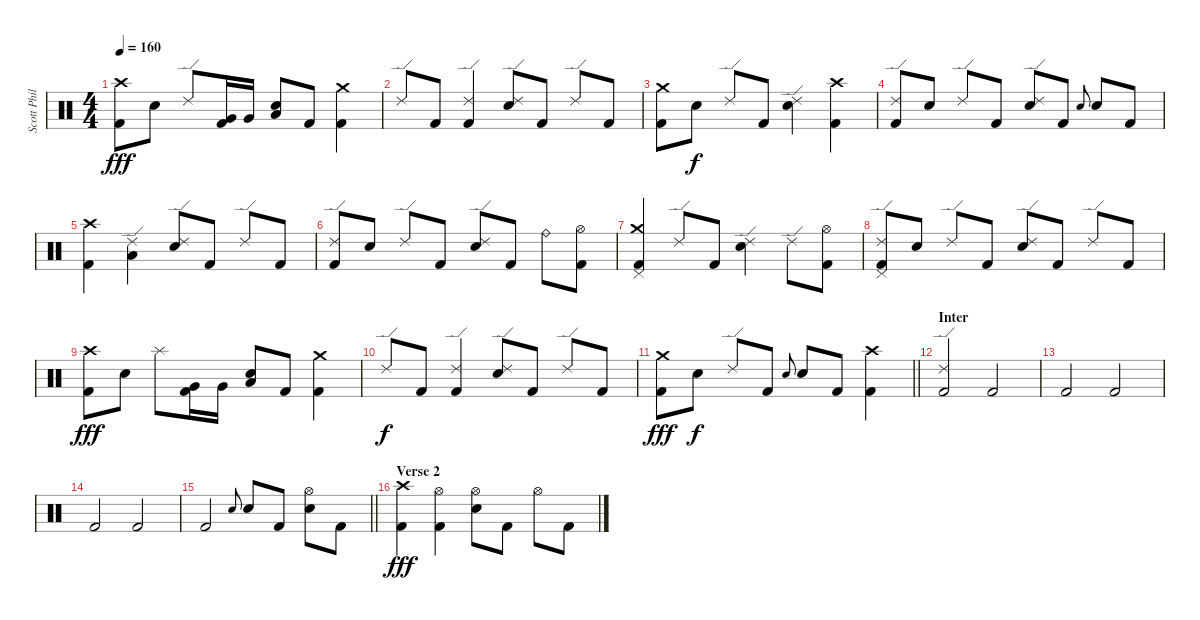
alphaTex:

\track ("Scott Phillips [Drums]" "Scott Phil") {instrument percussion}
\staff {score}
\articulation defaults
\ts (4 4)
\tempo 160
\clef neutral
\ks c
("Crash high (hit)" "Kick (hit) 2").8{dy fff} "Electric Snare (hit)".8 "Ride (edge) 2".8 ("Very Low Tom (hit)" "Kick (hit) 2").16 "Very Low Tom (hit)".16 ("Low Floor Tom (hit)" "Electric Snare (hit)").8 "Kick (hit) 2".8 ("Crash medium (hit)" "Kick (hit) 2").4 |
"Ride (edge) 2".8 "Kick (hit) 2".8 ("Ride (edge) 2" "Kick (hit) 2").4 ("Ride (edge) 2" "Electric Snare (hit)").8 "Kick (hit) 2".8 "Ride (edge) 2".8 "Kick (hit) 2".8 |
("Crash medium (hit)" "Kick (hit) 2").8 "Electric Snare (hit)".8{dy f} "Ride (edge) 2".8 "Kick (hit) 2".8 ("Ride (edge) 2" "Electric Snare (hit)").4 ("Crash high (hit)" "Kick (hit) 2").4 |
("Ride (edge) 2" "Kick (hit) 2").8 "Electric Snare (hit)".8 "Ride (edge) 2".8 "Kick (hit) 2".8 ("Ride (edge) 2" "Electric Snare (hit)").8 "Kick (hit) 2".8 "Electric Snare (hit)".8{gr onbeat} "Electric Snare (hit)".8 "Kick (hit) 2".8 |
("Crash high (hit)" "Kick (hit) 2").4 ("Ride (edge) 2" "Low Tom (hit)").4 ("Ride (edge) 2" "Electric Snare (hit)").8 "Kick (hit) 2".8 "Ride (edge) 2".8 "Kick (hit) 2".8 |
("Ride (edge) 2" "Kick (hit) 2").8 "Electric Snare (hit)".8 "Ride (edge) 2".8 "Kick (hit) 2".8 ("Ride (edge) 2" "Electric Snare (hit)").8 "Kick (hit) 2".8 "Ride (bell)".8 ("Hi-Hat (open)" "Kick (hit) 2").8 |
("Crash medium (hit)" "Pedal Hi-Hat (hit)" "Kick (hit) 2").4 "Ride (edge) 2".8 "Kick (hit) 2".8 ("Ride (edge) 2" "Electric Snare (hit)").4 "Ride (edge) 2".8 ("Hi-Hat (open)" "Kick (hit) 2").8 |
("Ride (edge) 2" "Pedal Hi-Hat (hit)" "Kick (hit) 2").8 "Electric Snare (hit)".8 "Ride (edge) 2".8 "Kick (hit) 2".8 ("Ride (edge) 2" "Electric Snare (hit)").8 "Kick (hit) 2".8 "Ride (edge) 2".8 "Kick (hit) 2".8 |
("Crash high (hit)" "Kick (hit) 2").8{dy fff} "Electric Snare (hit)".8 "Splash (hit)".8 ("Very Low Tom (hit)" "Kick (hit) 2").16 "Very Low Tom (hit)".16 ("Low Floor Tom (hit)" "Electric Snare (hit)").8 "Kick (hit) 2".8 ("Crash medium (hit)" "Kick (hit) 2").4 |
"Ride (edge) 2".8{dy f} "Kick (hit) 2".8 ("Ride (edge) 2" "Kick (hit) 2").4 ("Ride (edge) 2" "Electric Snare (hit)").8 "Kick (hit) 2".8 "Ride (edge) 2".8 "Kick (hit) 2".8 |
\barLineRight lightlight
("Crash medium (hit)" "Kick (hit) 2").8{dy fff} "Electric Snare (hit)".8{dy f} "Ride (edge) 2".8 "Kick (hit) 2".8 "Electric Snare (hit)".8{gr onbeat} "Electric Snare (hit)".8 "Kick (hit) 2".8 ("Crash high (hit)" "Kick (hit) 2").4 |
\section ("" "Inter")
("Ride (edge) 2" "Kick (hit) 2").2 "Kick (hit) 2".2 |
"Kick (hit) 2".2 "Kick (hit) 2".2 |
"Kick (hit) 2".2 "Kick (hit) 2".2 |
\barLineRight lightlight "Kick (hit) 2".2 "Electric Snare (hit)".8{gr onbeat} "Electric Snare (hit)".8 "Kick (hit) 2".8
("Hi-Hat (open)" "Electric Snare (hit)").8 "Kick (hit) 2".8 |
\section ("" "Verse 2")
("Crash high (hit)" "Kick (hit) 2").4{dy fff} ("Hi-Hat (open)" "Kick (hit) 2").4 ("Hi-Hat (open)" "Electric Snare (hit)").8 "Kick (hit) 2".8 "Hi-Hat (open)".8 "Kick (hit) 2".8
